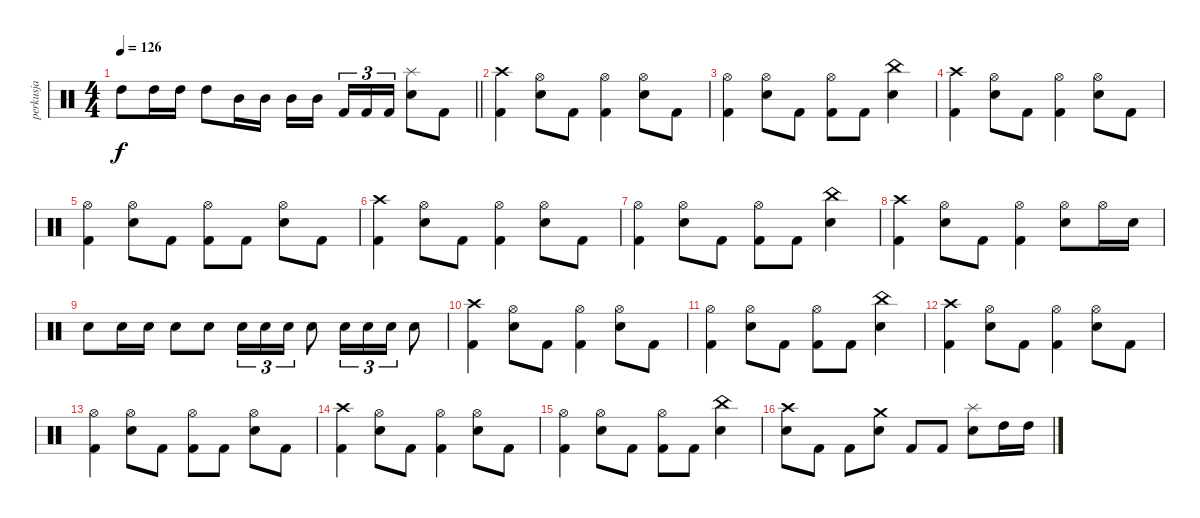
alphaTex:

\track ("perkusja" "perkusja") {instrument percussion}
\staff {score}
\articulation defaults
\ts (4 4)
\tempo 126
\clef neutral
\barLineRight lightlight
\ks c "High Tom (hit)".8{dy f} "High Tom (hit)".16 "High Tom (hit)".16 "High Tom (hit)".8 "Mid Tom (hit)".16 "Mid Tom (hit)".16 "Mid Tom (hit)".16 "Mid Tom (hit)".16{beam splitsecondary} "Kick (hit) 2".16{tu (3 2)} "Kick (hit) 2".16{tu (3 2)} "Kick (hit) 2".16{tu (3 2)}
("Splash (hit)" "Electric Snare (hit)").8 "Kick (hit) 2".8 |
("Crash high (hit)" "Kick (hit) 2").4 ("Hi-Hat (open)" "Electric Snare (hit)").8 "Kick (hit) 2".8 ("Hi-Hat (open)" "Kick (hit) 2").4 ("Hi-Hat (open)" "Electric Snare (hit)").8 "Kick (hit) 2".8 |
("Hi-Hat (open)" "Kick (hit) 2").4 ("Hi-Hat (open)" "Electric Snare (hit)").8 "Kick (hit) 2".8 ("Hi-Hat (open)" "Kick (hit) 2").8 "Kick (hit) 2".8 ("China (hit)" "Electric Snare (hit)").4 |
("Crash high (hit)" "Kick (hit) 2").4 ("Hi-Hat (open)" "Electric Snare (hit)").8 "Kick (hit) 2".8 ("Hi-Hat (open)" "Kick (hit) 2").4 ("Hi-Hat (open)" "Electric Snare (hit)").8 "Kick (hit) 2".8 |
("Hi-Hat (open)" "Kick (hit) 2").4 ("Hi-Hat (open)" "Electric Snare (hit)").8 "Kick (hit) 2".8 ("Hi-Hat (open)" "Kick (hit) 2").8 "Kick (hit) 2".8 ("Hi-Hat (open)" "Electric Snare (hit)").8 "Kick (hit) 2".8 |
("Crash high (hit)" "Kick (hit) 2").4 ("Hi-Hat (open)" "Electric Snare (hit)").8 "Kick (hit) 2".8 ("Hi-Hat (open)" "Kick (hit) 2").4 ("Hi-Hat (open)" "Electric Snare (hit)").8 "Kick (hit) 2".8 |
("Hi-Hat (open)" "Kick (hit) 2").4 ("Hi-Hat (open)" "Electric Snare (hit)").8 "Kick (hit) 2".8 ("Hi-Hat (open)" "Kick (hit) 2").8 "Kick (hit) 2".8 ("China (hit)" "Electric Snare (hit)").4 |
("Crash high (hit)" "Kick (hit) 2").4 ("Hi-Hat (open)" "Electric Snare (hit)").8 "Kick (hit) 2".8 ("Hi-Hat (open)" "Kick (hit) 2").4 ("Hi-Hat (open)" "Electric Snare (hit)").8 "Hi-Hat (open)".16 "Electric Snare (hit)".16 |
"Electric Snare (hit)".8 "Electric Snare (hit)".16 "Electric Snare (hit)".16 "Electric Snare (hit)".8 "Electric Snare (hit)".8 "Electric Snare (hit)".16{tu (3 2)} "Electric Snare (hit)".16{tu (3 2)} "Electric Snare (hit)".16{tu (3 2)} "Electric Snare (hit)".8 "Electric Snare (hit)".16{tu (3 2)} "Electric Snare (hit)".16{tu (3 2)} "Electric Snare (hit)".16{tu (3 2)} "Electric Snare (hit)".8 |
("Crash high (hit)" "Kick (hit) 2").4 ("Hi-Hat (open)" "Electric Snare (hit)").8 "Kick (hit) 2".8 ("Hi-Hat (open)" "Kick (hit) 2").4 ("Hi-Hat (open)" "Electric Snare (hit)").8 "Kick (hit) 2".8 |
("Hi-Hat (open)" "Kick (hit) 2").4 ("Hi-Hat (open)" "Electric Snare (hit)").8 "Kick (hit) 2".8 ("Hi-Hat (open)" "Kick (hit) 2").8 "Kick (hit) 2".8 ("China (hit)" "Electric Snare (hit)").4 |
("Crash high (hit)" "Kick (hit) 2").4 ("Hi-Hat (open)" "Electric Snare (hit)").8 "Kick (hit) 2".8 ("Hi-Hat (open)" "Kick (hit) 2").4 ("Hi-Hat (open)" "Electric Snare (hit)").8 "Kick (hit) 2".8 |
("Hi-Hat (open)" "Kick (hit) 2").4 ("Hi-Hat (open)" "Electric Snare (hit)").8 "Kick (hit) 2".8 ("Hi-Hat (open)" "Kick (hit) 2").8 "Kick (hit) 2".8 ("Hi-Hat (open)" "Electric Snare (hit)").8 "Kick (hit) 2".8 |
("Crash high (hit)" "Kick (hit) 2").4 ("Hi-Hat (open)" "Electric Snare (hit)").8 "Kick (hit) 2".8 ("Hi-Hat (open)" "Kick (hit) 2").4 ("Hi-Hat (open)" "Electric Snare (hit)").8 "Kick (hit) 2".8 |
("Hi-Hat (open)" "Kick (hit) 2").4 ("Hi-Hat (open)" "Electric Snare (hit)").8 "Kick (hit) 2".8 ("Hi-Hat (open)" "Kick (hit) 2").8 "Kick (hit) 2".8 ("China (hit)" "Electric Snare (hit)").4 |
("Crash high (hit)" "Electric Snare (hit)").8 "Kick (hit) 2".8 "Kick (hit) 2".8 ("Crash medium (hit)" "Electric Snare (hit)").8 "Kick (hit) 2".8 "Kick (hit) 2".8 ("Splash (hit)" "Electric Snare (hit)").8 "High Tom (hit)".16 "High Tom (hit)".16
